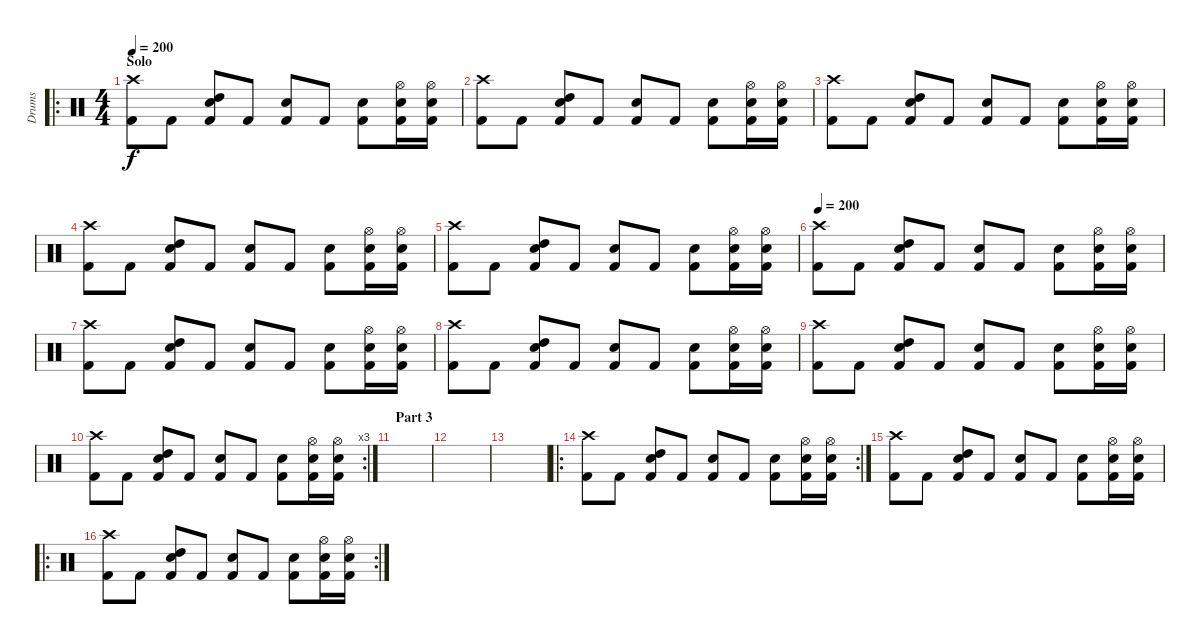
\track ("Drums" "Drums") {instrument percussion}
\staff {score}
\articulation defaults
\ro
\ts (4 4)
\section ("" "Solo")
\tempo 200
\clef neutral
\ks c
("Kick (hit) 2" "Crash high (hit)").8{dy f} "Kick (hit) 2".8 ("Kick (hit) 2" "Electric Snare (hit)" "High Tom (hit)").8 "Kick (hit) 2".8 ("Kick (hit) 2" "Electric Snare (hit)").8 "Kick (hit) 2".8 ("Kick (hit) 2" "Electric Snare (hit)").8 ("Kick (hit) 2" "Hi-Hat (open)" "Electric Snare (hit)").16 ("Kick (hit) 2" "Hi-Hat (open)" "Electric Snare (hit)").16 |
("Kick (hit) 2" "Crash high (hit)").8 "Kick (hit) 2".8 ("Kick (hit) 2" "Electric Snare (hit)" "High Tom (hit)").8 "Kick (hit) 2".8 ("Kick (hit) 2" "Electric Snare (hit)").8 "Kick (hit) 2".8 ("Kick (hit) 2" "Electric Snare (hit)").8 ("Kick (hit) 2" "Hi-Hat (open)" "Electric Snare (hit)").16 ("Kick (hit) 2" "Hi-Hat (open)" "Electric Snare (hit)").16 |
("Kick (hit) 2" "Crash high (hit)").8 "Kick (hit) 2".8 ("Kick (hit) 2" "Electric Snare (hit)" "High Tom (hit)").8 "Kick (hit) 2".8 ("Kick (hit) 2" "Electric Snare (hit)").8 "Kick (hit) 2".8 ("Kick (hit) 2" "Electric Snare (hit)").8 ("Kick (hit) 2" "Hi-Hat (open)" "Electric Snare (hit)").16 ("Kick (hit) 2" "Hi-Hat (open)" "Electric Snare (hit)").16 |
("Kick (hit) 2" "Crash high (hit)").8 "Kick (hit) 2".8 ("Kick (hit) 2" "Electric Snare (hit)" "High Tom (hit)").8 "Kick (hit) 2".8 ("Kick (hit) 2" "Electric Snare (hit)").8 "Kick (hit) 2".8 ("Kick (hit) 2" "Electric Snare (hit)").8 ("Kick (hit) 2" "Hi-Hat (open)" "Electric Snare (hit)").16 ("Kick (hit) 2" "Hi-Hat (open)" "Electric Snare (hit)").16 |
("Kick (hit) 2" "Crash high (hit)").8 "Kick (hit) 2".8 ("Kick (hit) 2" "Electric Snare (hit)" "High Tom (hit)").8 "Kick (hit) 2".8 ("Kick (hit) 2" "Electric Snare (hit)").8 "Kick (hit) 2".8 ("Kick (hit) 2" "Electric Snare (hit)").8 ("Kick (hit) 2" "Hi-Hat (open)" "Electric Snare (hit)").16 ("Kick (hit) 2" "Hi-Hat (open)" "Electric Snare (hit)").16 |
\tempo 200
("Kick (hit) 2" "Crash high (hit)").8 "Kick (hit) 2".8 ("Kick (hit) 2" "Electric Snare (hit)" "High Tom (hit)").8 "Kick (hit) 2".8 ("Kick (hit) 2" "Electric Snare (hit)").8 "Kick (hit) 2".8 ("Kick (hit) 2" "Electric Snare (hit)").8 ("Kick (hit) 2" "Hi-Hat (open)" "Electric Snare (hit)").16 ("Kick (hit) 2" "Hi-Hat (open)" "Electric Snare (hit)").16 |
("Kick (hit) 2" "Crash high (hit)").8 "Kick (hit) 2".8 ("Kick (hit) 2" "Electric Snare (hit)" "High Tom (hit)").8 "Kick (hit) 2".8 ("Kick (hit) 2" "Electric Snare (hit)").8 "Kick (hit) 2".8 ("Kick (hit) 2" "Electric Snare (hit)").8 ("Kick (hit) 2" "Hi-Hat (open)" "Electric Snare (hit)").16 ("Kick (hit) 2" "Hi-Hat (open)" "Electric Snare (hit)").16 |
("Kick (hit) 2" "Crash high (hit)").8 "Kick (hit) 2".8 ("Kick (hit) 2" "Electric Snare (hit)" "High Tom (hit)").8 "Kick (hit) 2".8 ("Kick (hit) 2" "Electric Snare (hit)").8 "Kick (hit) 2".8 ("Kick (hit) 2" "Electric Snare (hit)").8 ("Kick (hit) 2" "Hi-Hat (open)" "Electric Snare (hit)").16 ("Kick (hit) 2" "Hi-Hat (open)" "Electric Snare (hit)").16 |
("Kick (hit) 2" "Crash high (hit)").8 "Kick (hit) 2".8 ("Kick (hit) 2" "Electric Snare (hit)" "High Tom (hit)").8 "Kick (hit) 2".8 ("Kick (hit) 2" "Electric Snare (hit)").8 "Kick (hit) 2".8 ("Kick (hit) 2" "Electric Snare (hit)").8 ("Kick (hit) 2" "Hi-Hat (open)" "Electric Snare (hit)").16 ("Kick (hit) 2" "Hi-Hat (open)" "Electric Snare (hit)").16 |
\rc 3
("Kick (hit) 2" "Crash high (hit)").8 "Kick (hit) 2".8 ("Kick (hit) 2" "Electric Snare (hit)" "High Tom (hit)").8 "Kick (hit) 2".8 ("Kick (hit) 2" "Electric Snare (hit)").8 "Kick (hit) 2".8 ("Kick (hit) 2" "Electric Snare (hit)").8 ("Kick (hit) 2" "Hi-Hat (open)" "Electric Snare (hit)").16 ("Kick (hit) 2" "Hi-Hat (open)" "Electric Snare (hit)").16 |
\section ("" "Part 3")
|
|
|
\ro
\rc 2
("Kick (hit) 2" "Crash high (hit)").8 "Kick (hit) 2".8 ("Kick (hit) 2" "Electric Snare (hit)" "High Tom (hit)").8 "Kick (hit) 2".8 ("Kick (hit) 2" "Electric Snare (hit)").8 "Kick (hit) 2".8 ("Kick (hit) 2" "Electric Snare (hit)").8 ("Kick (hit) 2" "Hi-Hat (open)" "Electric Snare (hit)").16 ("Kick (hit) 2" "Hi-Hat (open)" "Electric Snare (hit)").16 |
("Kick (hit) 2" "Crash high (hit)").8 "Kick (hit) 2".8 ("Kick (hit) 2" "Electric Snare (hit)" "High Tom (hit)").8 "Kick (hit) 2".8 ("Kick (hit) 2" "Electric Snare (hit)").8 "Kick (hit) 2".8 ("Kick (hit) 2" "Electric Snare (hit)").8 ("Kick (hit) 2" "Hi-Hat (open)" "Electric Snare (hit)").16 ("Kick (hit) 2" "Hi-Hat (open)" "Electric Snare (hit)").16 |
\ro
\rc 2
("Kick (hit) 2" "Crash high (hit)").8 "Kick (hit) 2".8 ("Kick (hit) 2" "Electric Snare (hit)" "High Tom (hit)").8 "Kick (hit) 2".8 ("Kick (hit) 2" "Electric Snare (hit)").8 "Kick (hit) 2".8 ("Kick (hit) 2" "Electric Snare (hit)").8 ("Kick (hit) 2" "Hi-Hat (open)" "Electric Snare (hit)").16 ("Kick (hit) 2" "Hi-Hat (open)" "Electric Snare (hit)").16
